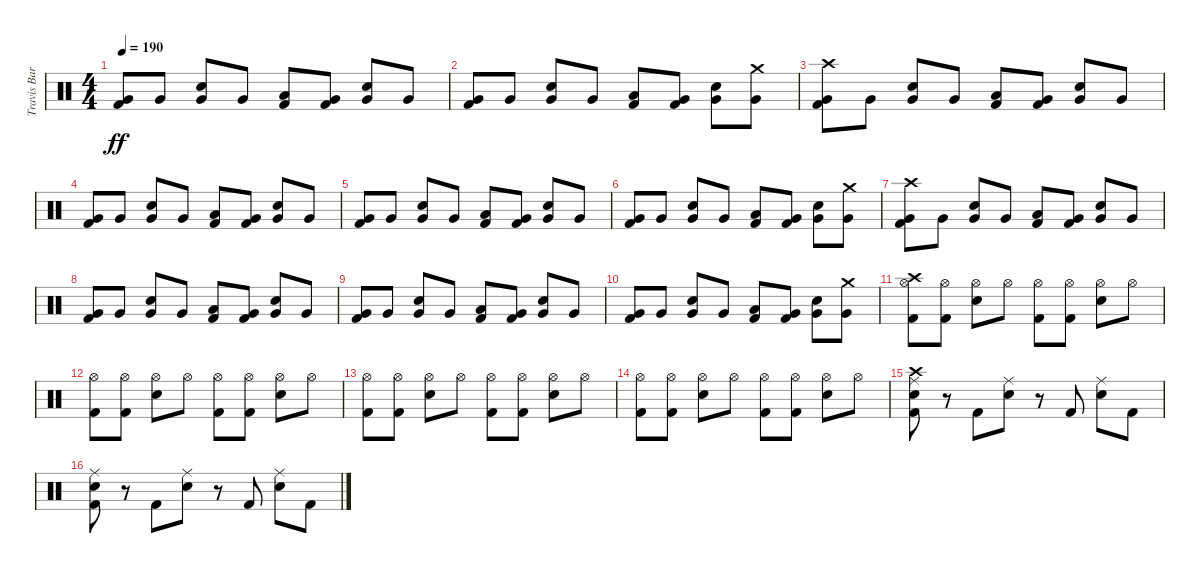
\track ("Travis Barker - Drums" "Travis Bar") {instrument percussion}
\staff {score}
\articulation defaults
\ts (4 4)
\tempo 190
\clef neutral
\ks c
("Very Low Tom (hit)" "Kick (hit) 2").8{dy ff} "Very Low Tom (hit)".8 ("Very Low Tom (hit)" "Electric Snare (hit)").8 "Very Low Tom (hit)".8 ("Low Floor Tom (hit)" "Kick (hit) 2").8 ("Very Low Tom (hit)" "Kick (hit) 2").8 ("Very Low Tom (hit)" "Electric Snare (hit)").8 "Very Low Tom (hit)".8 |
("Very Low Tom (hit)" "Kick (hit) 2").8 "Very Low Tom (hit)".8 ("Very Low Tom (hit)" "Electric Snare (hit)").8 "Very Low Tom (hit)".8 ("Low Floor Tom (hit)" "Kick (hit) 2").8 ("Very Low Tom (hit)" "Kick (hit) 2").8 ("Very Low Tom (hit)" "Electric Snare (hit)").8 ("Crash medium (hit)" "Very Low Tom (hit)").8 |
("Crash high (hit)" "Very Low Tom (hit)" "Kick (hit) 2").8 "Very Low Tom (hit)".8 ("Very Low Tom (hit)" "Electric Snare (hit)").8 "Very Low Tom (hit)".8 ("Low Floor Tom (hit)" "Kick (hit) 2").8 ("Very Low Tom (hit)" "Kick (hit) 2").8 ("Very Low Tom (hit)" "Electric Snare (hit)").8 "Very Low Tom (hit)".8 |
("Very Low Tom (hit)" "Kick (hit) 2").8 "Very Low Tom (hit)".8 ("Very Low Tom (hit)" "Electric Snare (hit)").8 "Very Low Tom (hit)".8 ("Low Floor Tom (hit)" "Kick (hit) 2").8 ("Very Low Tom (hit)" "Kick (hit) 2").8 ("Very Low Tom (hit)" "Electric Snare (hit)").8 "Very Low Tom (hit)".8 |
("Very Low Tom (hit)" "Kick (hit) 2").8 "Very Low Tom (hit)".8 ("Very Low Tom (hit)" "Electric Snare (hit)").8 "Very Low Tom (hit)".8 ("Low Floor Tom (hit)" "Kick (hit) 2").8 ("Very Low Tom (hit)" "Kick (hit) 2").8 ("Very Low Tom (hit)" "Electric Snare (hit)").8 "Very Low Tom (hit)".8 |
("Very Low Tom (hit)" "Kick (hit) 2").8 "Very Low Tom (hit)".8 ("Very Low Tom (hit)" "Electric Snare (hit)").8 "Very Low Tom (hit)".8 ("Low Floor Tom (hit)" "Kick (hit) 2").8 ("Very Low Tom (hit)" "Kick (hit) 2").8 ("Very Low Tom (hit)" "Electric Snare (hit)").8 ("Crash medium (hit)" "Very Low Tom (hit)").8 |
("Crash high (hit)" "Very Low Tom (hit)" "Kick (hit) 2").8 "Very Low Tom (hit)".8 ("Very Low Tom (hit)" "Electric Snare (hit)").8 "Very Low Tom (hit)".8 ("Low Floor Tom (hit)" "Kick (hit) 2").8 ("Very Low Tom (hit)" "Kick (hit) 2").8 ("Very Low Tom (hit)" "Electric Snare (hit)").8 "Very Low Tom (hit)".8 |
("Very Low Tom (hit)" "Kick (hit) 2").8 "Very Low Tom (hit)".8 ("Very Low Tom (hit)" "Electric Snare (hit)").8 "Very Low Tom (hit)".8 ("Low Floor Tom (hit)" "Kick (hit) 2").8 ("Very Low Tom (hit)" "Kick (hit) 2").8 ("Very Low Tom (hit)" "Electric Snare (hit)").8 "Very Low Tom (hit)".8 |
("Very Low Tom (hit)" "Kick (hit) 2").8 "Very Low Tom (hit)".8 ("Very Low Tom (hit)" "Electric Snare (hit)").8 "Very Low Tom (hit)".8 ("Low Floor Tom (hit)" "Kick (hit) 2").8 ("Very Low Tom (hit)" "Kick (hit) 2").8 ("Very Low Tom (hit)" "Electric Snare (hit)").8 "Very Low Tom (hit)".8 |
("Very Low Tom (hit)" "Kick (hit) 2").8 "Very Low Tom (hit)".8 ("Very Low Tom (hit)" "Electric Snare (hit)").8 "Very Low Tom (hit)".8 ("Low Floor Tom (hit)" "Kick (hit) 2").8 ("Very Low Tom (hit)" "Kick (hit) 2").8 ("Very Low Tom (hit)" "Electric Snare (hit)").8 ("Crash medium (hit)" "Very Low Tom (hit)").8 |
("Crash high (hit)" "Hi-Hat (open)" "Kick (hit) 2").8 ("Hi-Hat (open)" "Kick (hit) 2").8 ("Hi-Hat (open)" "Electric Snare (hit)").8 "Hi-Hat (open)".8 ("Hi-Hat (open)" "Kick (hit) 2").8 ("Hi-Hat (open)" "Kick (hit) 2").8 ("Hi-Hat (open)" "Electric Snare (hit)").8 "Hi-Hat (open)".8 |
("Hi-Hat (open)" "Kick (hit) 2").8 ("Hi-Hat (open)" "Kick (hit) 2").8 ("Hi-Hat (open)" "Electric Snare (hit)").8 "Hi-Hat (open)".8 ("Hi-Hat (open)" "Kick (hit) 2").8 ("Hi-Hat (open)" "Kick (hit) 2").8 ("Hi-Hat (open)" "Electric Snare (hit)").8 "Hi-Hat (open)".8 |
("Hi-Hat (open)" "Kick (hit) 2").8 ("Hi-Hat (open)" "Kick (hit) 2").8 ("Hi-Hat (open)" "Electric Snare (hit)").8 "Hi-Hat (open)".8 ("Hi-Hat (open)" "Kick (hit) 2").8 ("Hi-Hat (open)" "Kick (hit) 2").8 ("Hi-Hat (open)" "Electric Snare (hit)").8 "Hi-Hat (open)".8 |
("Hi-Hat (open)" "Kick (hit) 2").8 ("Hi-Hat (open)" "Kick (hit) 2").8 ("Hi-Hat (open)" "Electric Snare (hit)").8 "Hi-Hat (open)".8 ("Hi-Hat (open)" "Kick (hit) 2").8 ("Hi-Hat (open)" "Kick (hit) 2").8 ("Hi-Hat (open)" "Electric Snare (hit)").8 "Hi-Hat (open)".8 |
("Crash high (hit)" "Ride (middle)" "Electric Snare (hit)" "Kick (hit) 2").8 r.8 "Kick (hit) 2".8 ("Ride (middle)" "Electric Snare (hit)").8 r.8 "Kick (hit) 2".8 ("Ride (middle)" "Electric Snare (hit)").8 "Kick (hit) 2".8 |
("Ride (middle)" "Electric Snare (hit)" "Kick (hit) 2").8 r.8 "Kick (hit) 2".8 ("Ride (middle)" "Electric Snare (hit)").8 r.8 "Kick (hit) 2".8 ("Ride (middle)" "Electric Snare (hit)").8 "Kick (hit) 2".8
